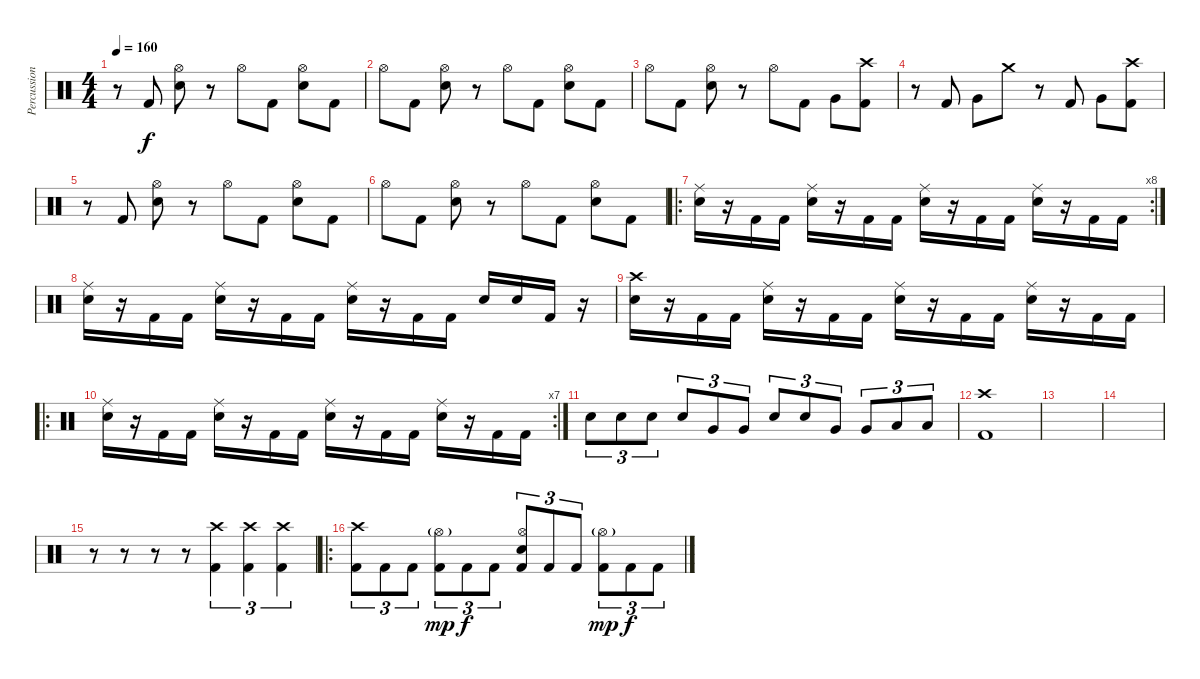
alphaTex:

\track ("Percussion" "Percussion") {instrument percussion}
\staff {score}
\articulation defaults
\ts (4 4)
\tempo 160
\clef neutral
\ks c
r.8{dy f} "Kick (hit) 2".8 ("Hi-Hat (open)" "Electric Snare (hit)").8 r.8 "Hi-Hat (open)".8 "Kick (hit) 2".8 ("Hi-Hat (open)" "Electric Snare (hit)").8 "Kick (hit) 2".8 |
"Hi-Hat (open)".8 "Kick (hit) 2".8 ("Hi-Hat (open)" "Electric Snare (hit)").8 r.8 "Hi-Hat (open)".8 "Kick (hit) 2".8 ("Hi-Hat (open)" "Electric Snare (hit)").8 "Kick (hit) 2".8 |
"Hi-Hat (open)".8 "Kick (hit) 2".8 ("Hi-Hat (open)" "Electric Snare (hit)").8 r.8 "Hi-Hat (open)".8 "Kick (hit) 2".8 "Very Low Tom (hit)".8 ("Crash high (hit)" "Kick (hit) 2").8 |
r.8 "Kick (hit) 2".8 "Very Low Tom (hit)".8 "Crash medium (hit)".8 r.8 "Kick (hit) 2".8 "Very Low Tom (hit)".8 ("Crash high (hit)" "Kick (hit) 2").8 |
r.8 "Kick (hit) 2".8 ("Hi-Hat (open)" "Electric Snare (hit)").8 r.8 "Hi-Hat (open)".8 "Kick (hit) 2".8 ("Hi-Hat (open)" "Electric Snare (hit)").8 "Kick (hit) 2".8 |
"Hi-Hat (open)".8 "Kick (hit) 2".8 ("Hi-Hat (open)" "Electric Snare (hit)").8 r.8 "Hi-Hat (open)".8 "Kick (hit) 2".8 ("Hi-Hat (open)" "Electric Snare (hit)").8 "Kick (hit) 2".8 |
\ro
\rc 8
("Ride (middle)" "Electric Snare (hit)").16 r.16 "Kick (hit) 2".16 "Kick (hit) 2".16 ("Ride (middle)" "Electric Snare (hit)").16 r.16 "Kick (hit) 2".16 "Kick (hit) 2".16 ("Ride (middle)" "Electric Snare (hit)").16 r.16 "Kick (hit) 2".16 "Kick (hit) 2".16 ("Ride (middle)" "Electric Snare (hit)").16 r.16 "Kick (hit) 2".16 "Kick (hit) 2".16 |
("Ride (middle)" "Electric Snare (hit)").16 r.16 "Kick (hit) 2".16 "Kick (hit) 2".16 ("Ride (middle)" "Electric Snare (hit)").16 r.16 "Kick (hit) 2".16 "Kick (hit) 2".16 ("Ride (middle)" "Electric Snare (hit)").16 r.16 "Kick (hit) 2".16 "Kick (hit) 2".16 "Electric Snare (hit)".16 "Electric Snare (hit)".16 "Kick (hit) 2".16 r.16 |
("Crash high (hit)" "Electric Snare (hit)").16 r.16 "Kick (hit) 2".16 "Kick (hit) 2".16 ("Ride (middle)" "Electric Snare (hit)").16 r.16 "Kick (hit) 2".16 "Kick (hit) 2".16 ("Ride (middle)" "Electric Snare (hit)").16 r.16 "Kick (hit) 2".16 "Kick (hit) 2".16 ("Ride (middle)" "Electric Snare (hit)").16 r.16 "Kick (hit) 2".16 "Kick (hit) 2".16 |
\ro
\rc 7
("Ride (middle)" "Electric Snare (hit)").16 r.16 "Kick (hit) 2".16 "Kick (hit) 2".16 ("Ride (middle)" "Electric Snare (hit)").16 r.16 "Kick (hit) 2".16 "Kick (hit) 2".16 ("Ride (middle)" "Electric Snare (hit)").16 r.16 "Kick (hit) 2".16 "Kick (hit) 2".16 ("Ride (middle)" "Electric Snare (hit)").16 r.16 "Kick (hit) 2".16 "Kick (hit) 2".16 |
"Electric Snare (hit)".8{tu (3 2)} "Electric Snare (hit)".8{tu (3 2)} "Electric Snare (hit)".8{tu (3 2)} "Electric Snare (hit)".8{tu (3 2)} "Very Low Tom (hit)".8{tu (3 2)} "Very Low Tom (hit)".8{tu (3 2)} "Electric Snare (hit)".8{tu (3 2)} "Electric Snare (hit)".8{tu (3 2)} "Very Low Tom (hit)".8{tu (3 2)} "Very Low Tom (hit)".8{tu (3 2)} "Low Floor Tom (hit)".8{tu (3 2)} "Low Floor Tom (hit)".8{tu (3 2)} |
("Crash high (hit)" "Kick (hit) 2").1 |
|
|
r.8 r.8 r.8 r.8 ("Crash high (hit)" "Kick (hit) 2").4{tu (3 2)} ("Crash high (hit)" "Kick (hit) 2").4{tu (3 2)} ("Crash high (hit)" "Kick (hit) 2").4{tu (3 2)} |
\ro
("Crash high (hit)" "Kick (hit) 2").8{tu (3 2)} "Kick (hit) 2".8{tu (3 2)} "Kick (hit) 2".8{tu (3 2)} ("Hi-Hat (open)"{g} "Kick (hit) 2").8{tu (3 2) dy mp} "Kick (hit) 2".8{tu (3 2) dy f} "Kick (hit) 2".8{tu (3 2)} ("Hi-Hat (open)" "Electric Snare (hit)" "Kick (hit) 2").8{tu (3 2)} "Kick (hit) 2".8{tu (3 2)} "Kick (hit) 2".8{tu (3 2)} ("Hi-Hat (open)"{g} "Kick (hit) 2").8{tu (3 2) dy mp} "Kick (hit) 2".8{tu (3 2) dy f} "Kick (hit) 2".8{tu (3 2)}
